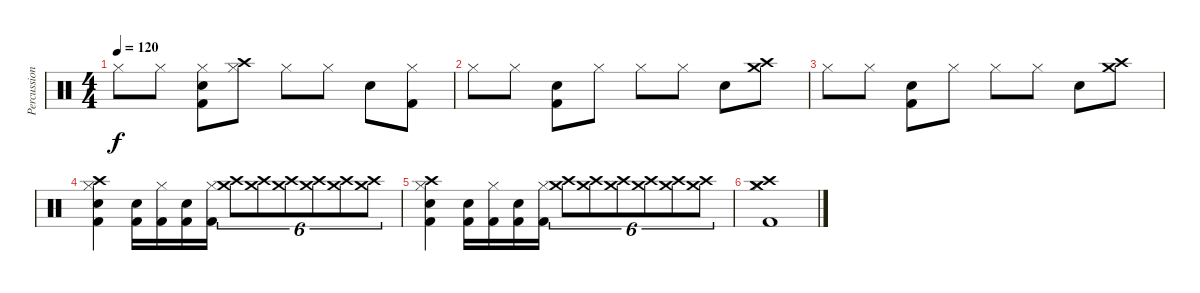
\track ("Percussioni" "Percussion") {instrument percussion}
\staff {score}
\articulation defaults
\ts (4 4)
\tempo 120
\clef neutral
\ks c "Hi-Hat (closed)".8{dy f} "Hi-Hat (closed)".8
("Hi-Hat (closed)" "Electric Snare (hit)" "Kick (hit) 2").8 ("Crash high (hit)" "Hi-Hat (closed)").8 "Hi-Hat (closed)".8 "Hi-Hat (closed)".8 "Electric Snare (hit)".8 ("Hi-Hat (closed)" "Kick (hit) 2").8 |
"Hi-Hat (closed)".8 "Hi-Hat (closed)".8 ("Electric Snare (hit)" "Kick (hit) 2").8 "Hi-Hat (closed)".8 "Hi-Hat (closed)".8 "Hi-Hat (closed)".8 "Electric Snare (hit)".8 ("Crash high (hit)" "Crash medium (hit)").8 |
"Hi-Hat (closed)".8 "Hi-Hat (closed)".8 ("Electric Snare (hit)" "Kick (hit) 2").8 "Hi-Hat (closed)".8 "Hi-Hat (closed)".8 "Hi-Hat (closed)".8 "Electric Snare (hit)".8 ("Crash high (hit)" "Crash medium (hit)").8 |
("Crash high (hit)" "Kick (hit) 2" "Electric Snare (hit)" "Hi-Hat (closed)").4 ("Kick (hit) 2" "Electric Snare (hit)").16 ("Kick (hit) 2" "Hi-Hat (closed)").16 ("Kick (hit) 2" "Electric Snare (hit)").16 ("Kick (hit) 2" "Hi-Hat (closed)").16 ("Crash high (hit)" "Crash medium (hit)").8{tu (6 4)} ("Crash high (hit)" "Crash medium (hit)").8{tu (6 4)} ("Crash high (hit)" "Crash medium (hit)").8{tu (6 4)} ("Crash high (hit)" "Crash medium (hit)").8{tu (6 4)} ("Crash high (hit)" "Crash medium (hit)").8{tu (6 4)} ("Crash high (hit)" "Crash medium (hit)").8{tu (6 4)} |
("Crash high (hit)" "Kick (hit) 2" "Electric Snare (hit)" "Hi-Hat (closed)").4 ("Kick (hit) 2" "Electric Snare (hit)").16 ("Kick (hit) 2" "Hi-Hat (closed)").16 ("Kick (hit) 2" "Electric Snare (hit)").16 ("Kick (hit) 2" "Hi-Hat (closed)").16 ("Crash high (hit)" "Crash medium (hit)").8{tu (6 4)} ("Crash high (hit)" "Crash medium (hit)").8{tu (6 4)} ("Crash high (hit)" "Crash medium (hit)").8{tu (6 4)} ("Crash high (hit)" "Crash medium (hit)").8{tu (6 4)} ("Crash high (hit)" "Crash medium (hit)").8{tu (6 4)} ("Crash high (hit)" "Crash medium (hit)").8{tu (6 4)} |
("Crash high (hit)" "Crash medium (hit)" "Kick (hit) 2" "Hi-Hat (closed)").1
